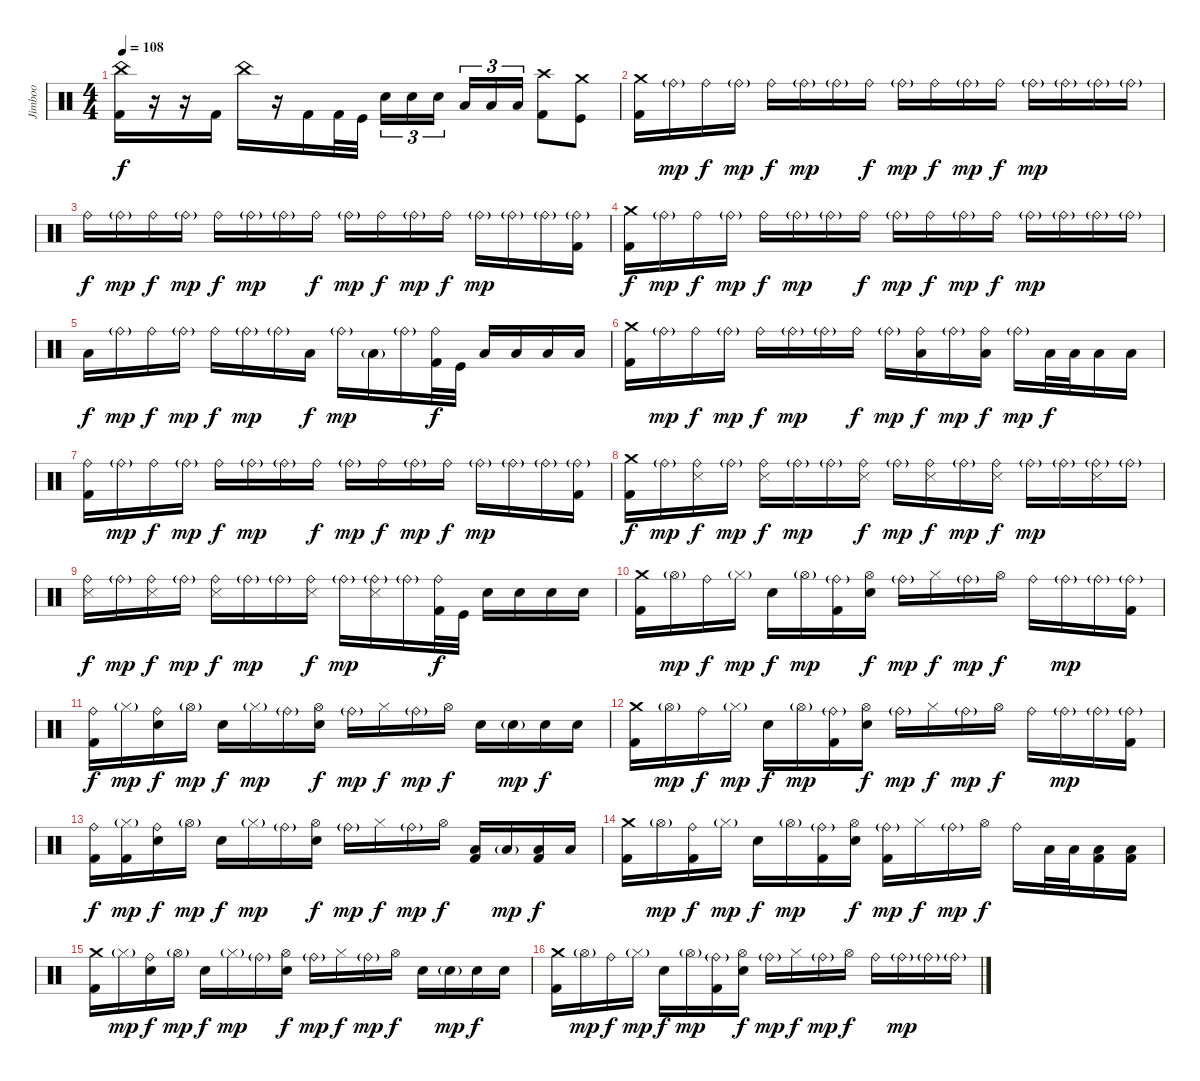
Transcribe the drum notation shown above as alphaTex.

\track ("Jimboo" "Jimboo") {instrument percussion}
\staff
\articulation defaults
\ts (4 4)
\tempo 108
\clef neutral
\ks c
("Kick (hit) 2" "China (hit)").16{dy f} r.16 r.16 "Kick (hit) 2".16 "China (hit)".16 r.16 "Kick (hit) 2".16 "Kick (hit) 2".32 "Kick (hit)".32 "Electric Snare (hit)".16{tu (3 2)} "Electric Snare (hit)".16{tu (3 2)} "Electric Snare (hit)".16{tu (3 2) beam splitsecondary} "Low Tom (hit)".16{tu (3 2)} "Low Tom (hit)".16{tu (3 2)} "Low Tom (hit)".16{tu (3 2)} ("Kick (hit) 2" "Crash high (hit)").8 ("Kick (hit)" "Crash medium (hit)").8 |
("Kick (hit) 2" "Crash medium (hit)").16 "Ride (bell)"{g}.16{dy mp} "Ride (bell)".16{dy f} "Ride (bell)"{g}.16{dy mp} "Ride (bell)".16{dy f} "Ride (bell)"{g}.16{dy mp} "Ride (bell)"{g}.16 "Ride (bell)".16{dy f} "Ride (bell)"{g}.16{dy mp} "Ride (bell)".16{dy f} "Ride (bell)"{g}.16{dy mp} "Ride (bell)".16{dy f} "Ride (bell)"{g}.16{dy mp} "Ride (bell)"{g}.16 "Ride (bell)"{g}.16 "Ride (bell)"{g}.16 |
"Ride (bell)".16{dy f} "Ride (bell)"{g}.16{dy mp} "Ride (bell)".16{dy f} "Ride (bell)"{g}.16{dy mp} "Ride (bell)".16{dy f} "Ride (bell)"{g}.16{dy mp} "Ride (bell)"{g}.16 "Ride (bell)".16{dy f} "Ride (bell)"{g}.16{dy mp} "Ride (bell)".16{dy f} "Ride (bell)"{g}.16{dy mp} "Ride (bell)".16{dy f} "Ride (bell)"{g}.16{dy mp} "Ride (bell)"{g}.16 "Ride (bell)"{g}.16 ("Ride (bell)"{g} "Kick (hit) 2").16 |
("Kick (hit) 2" "Crash medium (hit)").16{dy f} "Ride (bell)"{g}.16{dy mp} "Ride (bell)".16{dy f} "Ride (bell)"{g}.16{dy mp} "Ride (bell)".16{dy f} "Ride (bell)"{g}.16{dy mp} "Ride (bell)"{g}.16 "Ride (bell)".16{dy f} "Ride (bell)"{g}.16{dy mp} "Ride (bell)".16{dy f} "Ride (bell)"{g}.16{dy mp} "Ride (bell)".16{dy f} "Ride (bell)"{g}.16{dy mp} "Ride (bell)"{g}.16 "Ride (bell)"{g}.16 "Ride (bell)"{g}.16 |
"Low Tom (hit)".16{dy f} "Ride (bell)"{g}.16{dy mp} "Ride (bell)".16{dy f} "Ride (bell)"{g}.16{dy mp} "Ride (bell)".16{dy f} "Ride (bell)"{g}.16{dy mp} "Ride (bell)"{g}.16 "Low Floor Tom (hit)".16{dy f} "Ride (bell)"{g}.16{dy mp} "Low Floor Tom (hit)"{g}.16 "Ride (bell)"{g}.16 ("Ride (bell)" "Kick (hit) 2").32{dy f} "Kick (hit)".32 "Low Tom (hit)".16 "Low Tom (hit)".16 "Low Floor Tom (hit)".16 "Low Floor Tom (hit)".16 |
("Kick (hit) 2" "Crash medium (hit)").16 "Ride (bell)"{g}.16{dy mp} "Ride (bell)".16{dy f} "Ride (bell)"{g}.16{dy mp} "Ride (bell)".16{dy f} "Ride (bell)"{g}.16{dy mp} "Ride (bell)"{g}.16 "Ride (bell)".16{dy f} "Ride (bell)"{g}.16{dy mp} ("Ride (bell)" "Low Tom (hit)").16{dy f} "Ride (bell)"{g}.16{dy mp} ("Ride (bell)" "Low Tom (hit)").16{dy f} "Ride (bell)"{g}.16{dy mp} "Low Tom (hit)".32{dy f} "Low Tom (hit)".32 "Low Floor Tom (hit)".16 "Low Floor Tom (hit)".16 |
("Ride (bell)" "Kick (hit) 2").16 "Ride (bell)"{g}.16{dy mp} "Ride (bell)".16{dy f} "Ride (bell)"{g}.16{dy mp} "Ride (bell)".16{dy f} "Ride (bell)"{g}.16{dy mp} "Ride (bell)"{g}.16 "Ride (bell)".16{dy f} "Ride (bell)"{g}.16{dy mp} "Ride (bell)".16{dy f} "Ride (bell)"{g}.16{dy mp} "Ride (bell)".16{dy f} "Ride (bell)"{g}.16{dy mp} "Ride (bell)"{g}.16 "Ride (bell)"{g}.16 ("Ride (bell)"{g} "Kick (hit) 2").16 |
("Kick (hit) 2" "Crash medium (hit)").16{dy f} "Ride (bell)"{g}.16{dy mp} ("Ride (bell)" "Snare (side stick) 3").16{dy f} "Ride (bell)"{g}.16{dy mp} ("Ride (bell)" "Snare (side stick) 3").16{dy f} "Ride (bell)"{g}.16{dy mp} "Ride (bell)"{g}.16 ("Ride (bell)" "Snare (side stick) 3").16{dy f} "Ride (bell)"{g}.16{dy mp} ("Ride (bell)" "Snare (side stick) 3").16{dy f} "Ride (bell)"{g}.16{dy mp} ("Ride (bell)" "Snare (side stick) 3").16{dy f} "Ride (bell)"{g}.16{dy mp} "Ride (bell)"{g}.16 ("Ride (bell)"{g} "Snare (side stick) 3").16 "Ride (bell)"{g}.16 |
("Ride (bell)" "Snare (side stick) 3").16{dy f} "Ride (bell)"{g}.16{dy mp} ("Ride (bell)" "Snare (side stick) 3").16{dy f} "Ride (bell)"{g}.16{dy mp} ("Ride (bell)" "Snare (side stick) 3").16{dy f} "Ride (bell)"{g}.16{dy mp} "Ride (bell)"{g}.16 ("Ride (bell)" "Snare (side stick) 3").16{dy f} "Ride (bell)"{g}.16{dy mp} ("Ride (bell)"{g} "Snare (side stick) 3").16 "Ride (bell)"{g}.16 ("Ride (bell)" "Kick (hit) 2").32{dy f} "Kick (hit)".32 "Electric Snare (hit)".16 "Electric Snare (hit)".16 "Electric Snare (hit)".16 "Electric Snare (hit)".16 |
("Kick (hit) 2" "Crash medium (hit)").16 "Hi-Hat (open)"{g}.16{dy mp} "Ride (bell)".16{dy f} "Hi-Hat (closed)"{g}.16{dy mp} "Electric Snare (hit)".16{dy f} "Hi-Hat (open)"{g}.16{dy mp} ("Ride (bell)"{g} "Kick (hit) 2").16 ("Hi-Hat (open)" "Electric Snare (hit)").16{dy f} "Ride (bell)"{g}.16{dy mp} "Hi-Hat (closed)".16{dy f} "Ride (bell)"{g}.16{dy mp} "Hi-Hat (open)".16{dy f} "Ride (bell)".16 "Ride (bell)"{g}.16{dy mp} "Ride (bell)"{g}.16 ("Ride (bell)"{g} "Kick (hit) 2").16 |
("Ride (bell)" "Kick (hit) 2").16{dy f} "Hi-Hat (closed)"{g}.16{dy mp} ("Ride (bell)" "Electric Snare (hit)").16{dy f} "Hi-Hat (open)"{g}.16{dy mp} "Electric Snare (hit)".16{dy f} "Hi-Hat (closed)"{g}.16{dy mp} "Ride (bell)"{g}.16 ("Hi-Hat (open)" "Electric Snare (hit)").16{dy f} "Ride (bell)"{g}.16{dy mp} "Hi-Hat (closed)".16{dy f} "Ride (bell)"{g}.16{dy mp} "Hi-Hat (open)".16{dy f} "Electric Snare (hit)".16 "Electric Snare (hit)"{g}.16{dy mp} "Electric Snare (hit)".16{dy f} "Electric Snare (hit)".16 |
("Kick (hit) 2" "Crash medium (hit)").16 "Hi-Hat (open)"{g}.16{dy mp} "Ride (bell)".16{dy f} "Hi-Hat (closed)"{g}.16{dy mp} "Electric Snare (hit)".16{dy f} "Hi-Hat (open)"{g}.16{dy mp} ("Ride (bell)"{g} "Kick (hit) 2").16 ("Hi-Hat (open)" "Electric Snare (hit)").16{dy f} "Ride (bell)"{g}.16{dy mp} "Hi-Hat (closed)".16{dy f} "Ride (bell)"{g}.16{dy mp} "Hi-Hat (open)".16{dy f} "Ride (bell)".16 "Ride (bell)"{g}.16{dy mp} "Ride (bell)"{g}.16 ("Ride (bell)"{g} "Kick (hit) 2").16 |
("Ride (bell)" "Kick (hit) 2").16{dy f} ("Hi-Hat (closed)"{g} "Kick (hit) 2").16{dy mp} ("Ride (bell)" "Electric Snare (hit)").16{dy f} "Hi-Hat (open)"{g}.16{dy mp} "Electric Snare (hit)".16{dy f} "Hi-Hat (closed)"{g}.16{dy mp} "Ride (bell)"{g}.16 ("Hi-Hat (open)" "Electric Snare (hit)").16{dy f} "Ride (bell)"{g}.16{dy mp} "Hi-Hat (closed)".16{dy f} "Ride (bell)"{g}.16{dy mp} "Hi-Hat (open)".16{dy f} ("Low Tom (hit)" "Kick (hit) 2").16 "Low Tom (hit)"{g}.16{dy mp} ("Low Floor Tom (hit)" "Kick (hit) 2").16{dy f} "Low Floor Tom (hit)".16 |
("Kick (hit) 2" "Crash medium (hit)").16 "Hi-Hat (open)"{g}.16{dy mp} ("Ride (bell)" "Kick (hit) 2").16{dy f} "Hi-Hat (closed)"{g}.16{dy mp} "Electric Snare (hit)".16{dy f} "Hi-Hat (open)"{g}.16{dy mp} ("Ride (bell)"{g} "Kick (hit) 2").16 ("Hi-Hat (open)" "Electric Snare (hit)").16{dy f} ("Ride (bell)"{g} "Kick (hit) 2").16{dy mp} "Hi-Hat (closed)".16{dy f} "Ride (bell)"{g}.16{dy mp} "Hi-Hat (open)".16{dy f} "Ride (bell)".16 "Low Tom (hit)".32 "Low Tom (hit)".32 ("Kick (hit) 2" "Low Floor Tom (hit)").16 ("Kick (hit) 2" "Low Floor Tom (hit)").16 |
("Crash medium (hit)" "Kick (hit) 2").16 "Hi-Hat (closed)"{g}.16{dy mp} ("Ride (bell)" "Electric Snare (hit)").16{dy f} "Hi-Hat (open)"{g}.16{dy mp} "Electric Snare (hit)".16{dy f} "Hi-Hat (closed)"{g}.16{dy mp} "Ride (bell)"{g}.16 ("Hi-Hat (open)" "Electric Snare (hit)").16{dy f} "Ride (bell)"{g}.16{dy mp} "Hi-Hat (closed)".16{dy f} "Ride (bell)"{g}.16{dy mp} "Hi-Hat (open)".16{dy f} "Electric Snare (hit)".16 "Electric Snare (hit)"{g}.16{dy mp} "Electric Snare (hit)".16{dy f} "Electric Snare (hit)".16 |
("Kick (hit) 2" "Crash medium (hit)").16 "Hi-Hat (open)"{g}.16{dy mp} "Ride (bell)".16{dy f} "Hi-Hat (closed)"{g}.16{dy mp} "Electric Snare (hit)".16{dy f} "Hi-Hat (open)"{g}.16{dy mp} ("Ride (bell)"{g} "Kick (hit) 2").16 ("Hi-Hat (open)" "Electric Snare (hit)").16{dy f} "Ride (bell)"{g}.16{dy mp} "Hi-Hat (closed)".16{dy f} "Ride (bell)"{g}.16{dy mp} "Hi-Hat (open)".16{dy f} "Ride (bell)".16 "Ride (bell)"{g}.16{dy mp} "Ride (bell)"{g}.16 "Ride (bell)"{g}.16
